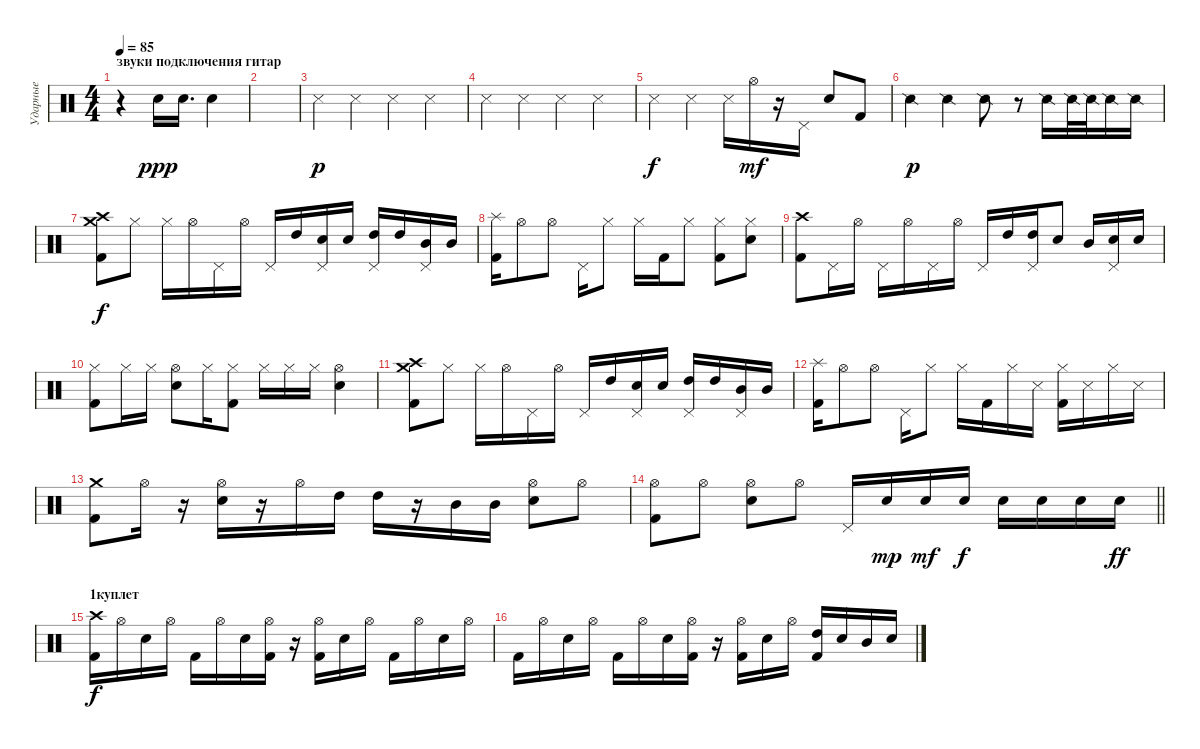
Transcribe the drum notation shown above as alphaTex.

\track ("Ударные" "Ударные") {instrument percussion}
\staff {score}
\articulation defaults
\ts (4 4)
\section ("" "звуки подключения гитар")
\tempo 85
\clef neutral
\ks c
r.4{dy ppp} "Snare (hit) 2".16 "Snare (hit) 2".16{d} "Snare (hit) 2".4 |
|
"Snare (side stick) 3".4{dy p} "Snare (side stick) 3".4 "Snare (side stick) 3".4 "Snare (side stick) 3".4 |
"Snare (side stick) 3".4 "Snare (side stick) 3".4 "Snare (side stick) 3".4 "Snare (side stick) 3".4 |
"Snare (side stick) 3".4{dy f} "Snare (side stick) 3".4 "Snare (side stick) 3".16 "Hi-Hat (open)".16{dy mf} r.16 "Pedal Hi-Hat (hit)".16 "Electric Snare (hit)".8 "Kick (hit) 2".8 |
"Snare (side stick) 2".4{dy p} "Snare (side stick) 2".4 "Snare (side stick) 2".8 r.8 "Snare (side stick) 2".16 "Snare (side stick) 2".32 "Snare (side stick) 2".32 "Snare (side stick) 2".16 "Snare (side stick) 2".16 |
("Kick (hit) 2" "Crash high (hit)" "Crash medium (hit)").8{dy f} "Hi-Hat (closed)".8 "Hi-Hat (closed)".16 "Hi-Hat (open)".16 "Pedal Hi-Hat (hit)".16 "Hi-Hat (open)".16 "Pedal Hi-Hat (hit)".16 "High Tom (hit)".16 ("Electric Snare (hit)" "Pedal Hi-Hat (hit)").16 "Electric Snare (hit)".16 ("High Tom (hit)" "Pedal Hi-Hat (hit)").16 "High Tom (hit)".16 ("Mid Tom (hit)" "Pedal Hi-Hat (hit)").16 "Mid Tom (hit)".16 |
("Kick (hit) 2" "Splash (hit)").16 "Hi-Hat (open)".8 "Hi-Hat (open)".8 "Pedal Hi-Hat (hit)".16 "Hi-Hat (closed)".8 "Hi-Hat (closed)".16 "Kick (hit) 2".16 "Hi-Hat (closed)".8 ("Kick (hit) 2" "Hi-Hat (closed)").8 ("Electric Snare (hit)" "Hi-Hat (closed)").8 |
("Kick (hit) 2" "Crash high (hit)").8 "Pedal Hi-Hat (hit)".16 "Hi-Hat (open)".16 "Pedal Hi-Hat (hit)".16 "Hi-Hat (open)".16 "Pedal Hi-Hat (hit)".16 "Hi-Hat (open)".16 "Pedal Hi-Hat (hit)".16 "High Tom (hit)".16 ("High Tom (hit)" "Pedal Hi-Hat (hit)").16 "Electric Snare (hit)".8 "Mid Tom (hit)".16 ("Electric Snare (hit)" "Pedal Hi-Hat (hit)").16 "Electric Snare (hit)".16 |
("Kick (hit) 2" "Hi-Hat (closed)").8 "Hi-Hat (closed)".16 "Hi-Hat (closed)".16 ("Electric Snare (hit)" "Hi-Hat (open)").8 "Hi-Hat (closed)".16 ("Kick (hit) 2" "Hi-Hat (closed)").8 "Hi-Hat (closed)".16 "Hi-Hat (closed)".16 "Hi-Hat (closed)".16 ("Electric Snare (hit)" "Hi-Hat (open)").4 |
("Kick (hit) 2" "Crash high (hit)" "Crash medium (hit)").8 "Hi-Hat (closed)".8 "Hi-Hat (closed)".16 "Hi-Hat (open)".16 "Pedal Hi-Hat (hit)".16 "Hi-Hat (open)".16 "Pedal Hi-Hat (hit)".16 "High Tom (hit)".16 ("Electric Snare (hit)" "Pedal Hi-Hat (hit)").16 "Electric Snare (hit)".16 ("High Tom (hit)" "Pedal Hi-Hat (hit)").16 "High Tom (hit)".16 ("Mid Tom (hit)" "Pedal Hi-Hat (hit)").16 "Mid Tom (hit)".16 |
("Kick (hit) 2" "Splash (hit)").16 "Hi-Hat (open)".8 "Hi-Hat (open)".8 "Pedal Hi-Hat (hit)".16 "Hi-Hat (closed)".8 "Hi-Hat (closed)".16 "Kick (hit) 2".16 "Hi-Hat (closed)".16 "Snare (side stick) 3".16 ("Kick (hit) 2" "Hi-Hat (closed)").16 "Snare (side stick) 3".16 "Hi-Hat (closed)".16 "Snare (side stick) 3".16 |
("Kick (hit) 2" "Crash medium (hit)").8 "Hi-Hat (open)".16 r.16 ("Electric Snare (hit)" "Hi-Hat (open)").16 r.16 "Hi-Hat (open)".16 "High Tom (hit)".16 "High Tom (hit)".16 r.16 "Mid Tom (hit)".16 "Mid Tom (hit)".16 ("Electric Snare (hit)" "Hi-Hat (open)").8 "Hi-Hat (open)".8 |
\barLineRight lightlight
("Kick (hit) 2" "Hi-Hat (open)").8 "Hi-Hat (open)".8 ("Electric Snare (hit)" "Hi-Hat (open)").8 "Hi-Hat (open)".8 "Pedal Hi-Hat (hit)".16 "Electric Snare (hit)".16{dy mp} "Electric Snare (hit)".16{dy mf} "Electric Snare (hit)".16{dy f} "Electric Snare (hit)".16 "Electric Snare (hit)".16 "Electric Snare (hit)".16 "Electric Snare (hit)".16{dy ff} |
\section ("" "1куплет")
("Kick (hit) 2" "Crash high (hit)").16{dy f} "Hi-Hat (open)".16 "Electric Snare (hit)".16 "Hi-Hat (open)".16 "Kick (hit) 2".16 "Hi-Hat (open)".16 "Electric Snare (hit)".16 ("Kick (hit) 2" "Hi-Hat (open)").16 r.16 ("Kick (hit) 2" "Hi-Hat (open)").16 "Electric Snare (hit)".16 "Hi-Hat (open)".16 "Kick (hit) 2".16 "Hi-Hat (open)".16 "Electric Snare (hit)".16 "Hi-Hat (open)".16 |
"Kick (hit) 2".16 "Hi-Hat (open)".16 "Electric Snare (hit)".16 "Hi-Hat (open)".16 "Kick (hit) 2".16 "Hi-Hat (open)".16 "Electric Snare (hit)".16 ("Kick (hit) 2" "Hi-Hat (open)").16 r.16 ("Kick (hit) 2" "Hi-Hat (open)").16 "Electric Snare (hit)".16 "Hi-Hat (open)".16 ("High Tom (hit)" "Kick (hit) 2").16 "Electric Snare (hit)".16 "Mid Tom (hit)".16 "Electric Snare (hit)".16
